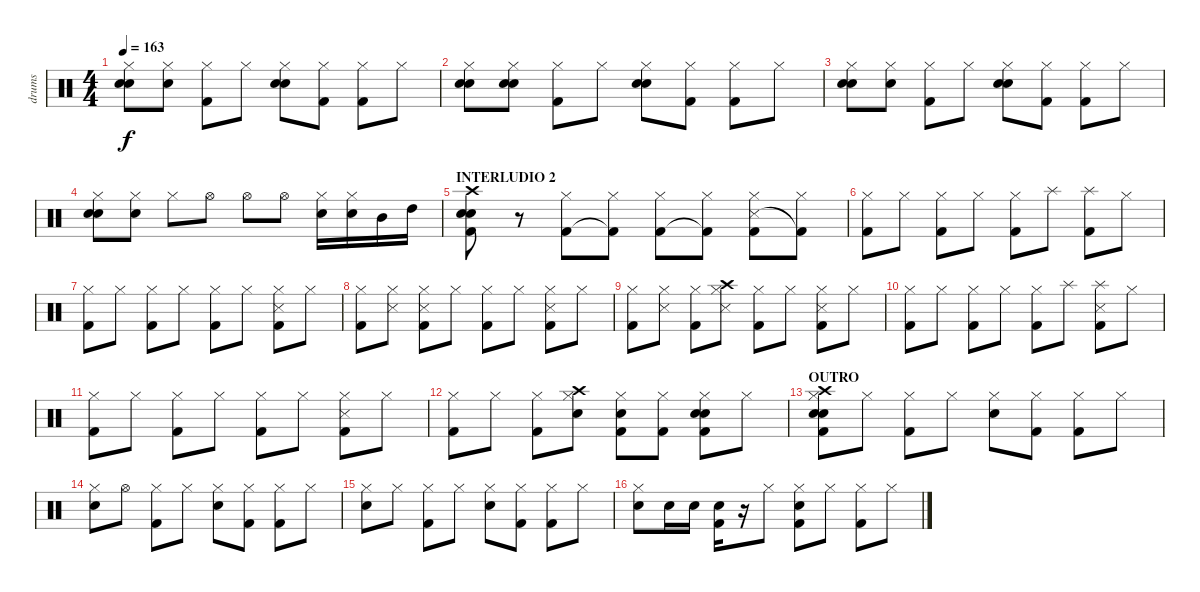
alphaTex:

\track ("drums" "drums") {instrument percussion}
\staff {score}
\articulation defaults
\ts (4 4)
\tempo 163
\clef neutral
\ks c
("Hand Clap (hit)" "Hi-Hat (closed)" "Electric Snare (hit)").8{dy f} ("Hand Clap (hit)" "Hi-Hat (closed)").8 ("Hi-Hat (closed)" "Kick (hit) 2").8 "Hi-Hat (closed)".8 ("Hand Clap (hit)" "Hi-Hat (closed)" "Electric Snare (hit)").8 ("Hi-Hat (closed)" "Kick (hit) 2").8 ("Hi-Hat (closed)" "Kick (hit) 2").8 "Hi-Hat (closed)".8 |
("Hand Clap (hit)" "Hi-Hat (closed)" "Electric Snare (hit)").8 ("Hand Clap (hit)" "Hi-Hat (closed)" "Electric Snare (hit)").8 ("Hi-Hat (closed)" "Kick (hit) 2").8 "Hi-Hat (closed)".8 ("Hand Clap (hit)" "Hi-Hat (closed)" "Electric Snare (hit)").8 ("Hi-Hat (closed)" "Kick (hit) 2").8 ("Hi-Hat (closed)" "Kick (hit) 2").8 "Hi-Hat (closed)".8 |
("Hand Clap (hit)" "Hi-Hat (closed)" "Electric Snare (hit)").8 ("Hand Clap (hit)" "Hi-Hat (closed)").8 ("Hi-Hat (closed)" "Kick (hit) 2").8 "Hi-Hat (closed)".8 ("Hand Clap (hit)" "Hi-Hat (closed)" "Electric Snare (hit)").8 ("Hi-Hat (closed)" "Kick (hit) 2").8 ("Hi-Hat (closed)" "Kick (hit) 2").8 "Hi-Hat (closed)".8 |
("Hand Clap (hit)" "Electric Snare (hit)" "Hi-Hat (closed)").8 ("Hand Clap (hit)" "Hi-Hat (closed)").8 "Hi-Hat (closed)".8 "Hi-Hat (open)".8 "Hi-Hat (open)".8 "Hi-Hat (open)".8 ("Electric Snare (hit)" "Hi-Hat (closed)").16 ("Electric Snare (hit)" "Hi-Hat (closed)").16 "Mid Tom (hit)".16 "High Tom (hit)".16 |
\section ("" "INTERLUDIO 2")
("Crash high (hit)" "Electric Snare (hit)" "Electric Snare (hit)" "Kick (hit) 2").8 r.8 ("Hi-Hat (closed)" "Kick (hit) 2").8 ("Hi-Hat (closed)" "Kick (hit) 2"{t}).8 ("Hi-Hat (closed)" "Kick (hit) 2").8 ("Hi-Hat (closed)" "Kick (hit) 2"{t}).8 ("Hi-Hat (closed)" "Snare (side stick) 3" "Kick (hit) 2").8 ("Hi-Hat (closed)" "Kick (hit) 2"{t}).8 |
("Hi-Hat (closed)" "Kick (hit) 2").8 "Hi-Hat (closed)".8 ("Hi-Hat (closed)" "Kick (hit) 2").8 "Hi-Hat (closed)".8 ("Hi-Hat (closed)" "Kick (hit) 2").8 "Splash (hit)".8 ("Splash (hit)" "Kick (hit) 2").8 "Hi-Hat (closed)".8 |
("Hi-Hat (closed)" "Kick (hit) 2").8 "Hi-Hat (closed)".8 ("Hi-Hat (closed)" "Kick (hit) 2").8 "Hi-Hat (closed)".8 ("Hi-Hat (closed)" "Kick (hit) 2").8 "Hi-Hat (closed)".8 ("Hi-Hat (closed)" "Snare (side stick) 3" "Kick (hit) 2").8 "Hi-Hat (closed)".8 |
("Hi-Hat (closed)" "Kick (hit) 2").8 ("Hi-Hat (closed)" "Snare (side stick) 3").8 ("Hi-Hat (closed)" "Snare (side stick) 3" "Kick (hit) 2").8 "Hi-Hat (closed)".8 ("Hi-Hat (closed)" "Kick (hit) 2").8 "Hi-Hat (closed)".8 ("Hi-Hat (closed)" "Snare (side stick) 3" "Kick (hit) 2").8 "Hi-Hat (closed)".8 |
("Hi-Hat (closed)" "Kick (hit) 2").8 ("Hi-Hat (closed)" "Snare (side stick) 3").8 ("Hi-Hat (closed)" "Kick (hit) 2").8 ("Crash high (hit)" "Hi-Hat (closed)" "Snare (side stick) 3").8 ("Hi-Hat (closed)" "Kick (hit) 2").8 "Hi-Hat (closed)".8 ("Hi-Hat (closed)" "Snare (side stick) 3" "Kick (hit) 2").8 "Hi-Hat (closed)".8 |
("Hi-Hat (closed)" "Kick (hit) 2").8 "Hi-Hat (closed)".8 ("Hi-Hat (closed)" "Kick (hit) 2").8 "Hi-Hat (closed)".8 ("Hi-Hat (closed)" "Kick (hit) 2").8 "Splash (hit)".8 ("Splash (hit)" "Snare (side stick) 3" "Kick (hit) 2").8 "Hi-Hat (closed)".8 |
("Hi-Hat (closed)" "Kick (hit) 2").8 "Hi-Hat (closed)".8 ("Hi-Hat (closed)" "Kick (hit) 2").8 "Hi-Hat (closed)".8 ("Hi-Hat (closed)" "Kick (hit) 2").8 "Hi-Hat (closed)".8 ("Hi-Hat (closed)" "Snare (side stick) 3" "Kick (hit) 2").8 "Hi-Hat (closed)".8 |
("Hi-Hat (closed)" "Kick (hit) 2").8 "Hi-Hat (closed)".8 ("Hi-Hat (closed)" "Kick (hit) 2").8 ("Crash high (hit)" "Hi-Hat (closed)" "Electric Snare (hit)").8 ("Hi-Hat (closed)" "Electric Snare (hit)" "Kick (hit) 2").8 ("Hi-Hat (closed)" "Kick (hit) 2").8 ("Hi-Hat (closed)" "Electric Snare (hit)" "Electric Snare (hit)" "Kick (hit) 2").8 "Hi-Hat (closed)".8 |
\section ("" "OUTRO")
("Crash high (hit)" "Hi-Hat (closed)" "Electric Snare (hit)" "Electric Snare (hit)" "Kick (hit) 2").8 "Hi-Hat (closed)".8 ("Hi-Hat (closed)" "Kick (hit) 2").8 "Hi-Hat (closed)".8 ("Hi-Hat (closed)" "Electric Snare (hit)").8 ("Hi-Hat (closed)" "Kick (hit) 2").8 ("Hi-Hat (closed)" "Kick (hit) 2").8 "Hi-Hat (closed)".8 |
("Hi-Hat (closed)" "Electric Snare (hit)").8 "Hi-Hat (open)".8 ("Hi-Hat (closed)" "Kick (hit) 2").8 "Hi-Hat (closed)".8 ("Hi-Hat (closed)" "Electric Snare (hit)").8 ("Hi-Hat (closed)" "Kick (hit) 2").8 ("Hi-Hat (closed)" "Kick (hit) 2").8 "Hi-Hat (closed)".8 |
("Hi-Hat (closed)" "Electric Snare (hit)").8 "Hi-Hat (closed)".8 ("Hi-Hat (closed)" "Kick (hit) 2").8 "Hi-Hat (closed)".8 ("Hi-Hat (closed)" "Electric Snare (hit)").8 ("Hi-Hat (closed)" "Kick (hit) 2").8 ("Hi-Hat (closed)" "Kick (hit) 2").8 "Hi-Hat (closed)".8 |
("Hi-Hat (closed)" "Electric Snare (hit)").8 "Electric Snare (hit)".16 "Electric Snare (hit)".16 ("Electric Snare (hit)" "Kick (hit) 2").16 r.16 "Hi-Hat (closed)".8 ("Hi-Hat (closed)" "Electric Snare (hit)" "Kick (hit) 2").8 "Hi-Hat (closed)".8 ("Hi-Hat (closed)" "Kick (hit) 2").8 "Hi-Hat (closed)".8
